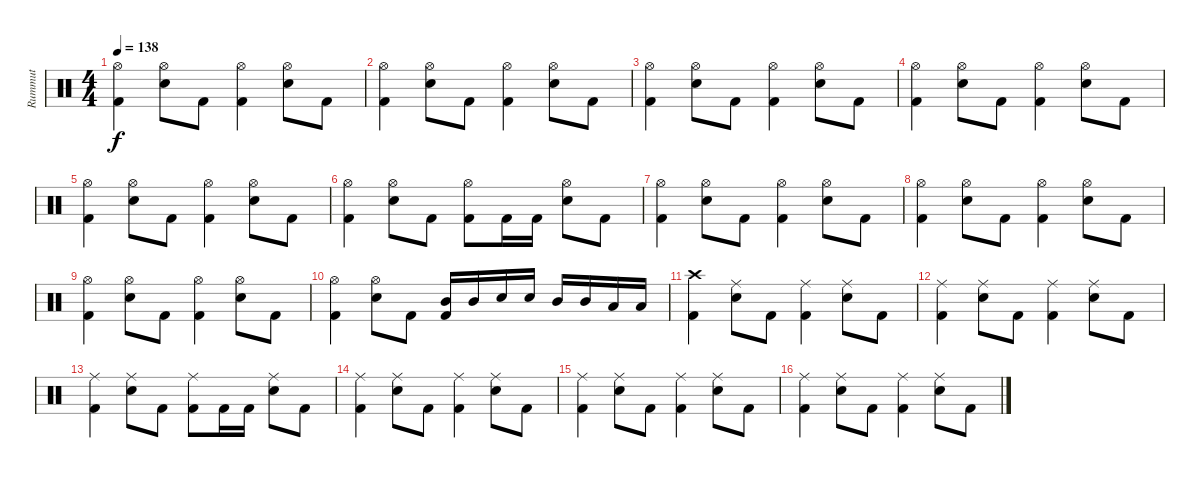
\track ("Rummut" "Rummut") {instrument percussion}
\staff {score}
\articulation defaults
\ts (4 4)
\tempo 138
\clef neutral
\ks c
("Hi-Hat (open)" "Kick (hit) 2").4{dy f} ("Hi-Hat (open)" "Snare (hit) 2").8 "Kick (hit) 2".8 ("Hi-Hat (open)" "Kick (hit) 2").4 ("Hi-Hat (open)" "Snare (hit) 2").8 "Kick (hit) 2".8 |
("Hi-Hat (open)" "Kick (hit) 2").4 ("Hi-Hat (open)" "Snare (hit) 2").8 "Kick (hit) 2".8 ("Hi-Hat (open)" "Kick (hit) 2").4 ("Hi-Hat (open)" "Snare (hit) 2").8 "Kick (hit) 2".8 |
("Hi-Hat (open)" "Kick (hit) 2").4 ("Hi-Hat (open)" "Snare (hit) 2").8 "Kick (hit) 2".8 ("Hi-Hat (open)" "Kick (hit) 2").4 ("Hi-Hat (open)" "Snare (hit) 2").8 "Kick (hit) 2".8 |
("Hi-Hat (open)" "Kick (hit) 2").4 ("Hi-Hat (open)" "Snare (hit) 2").8 "Kick (hit) 2".8 ("Hi-Hat (open)" "Kick (hit) 2").4 ("Hi-Hat (open)" "Snare (hit) 2").8 "Kick (hit) 2".8 |
("Hi-Hat (open)" "Kick (hit) 2").4 ("Hi-Hat (open)" "Snare (hit) 2").8 "Kick (hit) 2".8 ("Hi-Hat (open)" "Kick (hit) 2").4 ("Hi-Hat (open)" "Snare (hit) 2").8 "Kick (hit) 2".8 |
("Hi-Hat (open)" "Kick (hit) 2").4 ("Hi-Hat (open)" "Snare (hit) 2").8 "Kick (hit) 2".8 ("Hi-Hat (open)" "Kick (hit) 2").8 "Kick (hit) 2".16 "Kick (hit) 2".16 ("Hi-Hat (open)" "Snare (hit) 2").8 "Kick (hit) 2".8 |
("Hi-Hat (open)" "Kick (hit) 2").4 ("Hi-Hat (open)" "Snare (hit) 2").8 "Kick (hit) 2".8 ("Hi-Hat (open)" "Kick (hit) 2").4 ("Hi-Hat (open)" "Snare (hit) 2").8 "Kick (hit) 2".8 |
("Hi-Hat (open)" "Kick (hit) 2").4 ("Hi-Hat (open)" "Snare (hit) 2").8 "Kick (hit) 2".8 ("Hi-Hat (open)" "Kick (hit) 2").4 ("Hi-Hat (open)" "Snare (hit) 2").8 "Kick (hit) 2".8 |
("Hi-Hat (open)" "Kick (hit) 2").4 ("Hi-Hat (open)" "Snare (hit) 2").8 "Kick (hit) 2".8 ("Hi-Hat (open)" "Kick (hit) 2").4 ("Hi-Hat (open)" "Snare (hit) 2").8 "Kick (hit) 2".8 |
("Hi-Hat (open)" "Kick (hit) 2").4 ("Hi-Hat (open)" "Snare (hit) 2").8 "Kick (hit) 2".8 ("Mid Tom (hit)" "Kick (hit) 2").16 "Mid Tom (hit)".16 "Snare (hit) 2".16 "Snare (hit) 2".16 "Mid Tom (hit)".16 "Mid Tom (hit)".16 "Low Tom (hit)".16 "Low Tom (hit)".16 |
("Crash high (hit)" "Kick (hit) 2").4 ("Ride (middle)" "Snare (hit) 2").8 "Kick (hit) 2".8 ("Ride (middle)" "Kick (hit) 2").4 ("Ride (middle)" "Snare (hit) 2").8 "Kick (hit) 2".8 |
("Ride (middle)" "Kick (hit) 2").4 ("Ride (middle)" "Snare (hit) 2").8 "Kick (hit) 2".8 ("Ride (middle)" "Kick (hit) 2").4 ("Ride (middle)" "Snare (hit) 2").8 "Kick (hit) 2".8 |
("Ride (middle)" "Kick (hit) 2").4 ("Ride (middle)" "Snare (hit) 2").8 "Kick (hit) 2".8 ("Ride (middle)" "Kick (hit) 2").8 "Kick (hit) 2".16 "Kick (hit) 2".16 ("Ride (middle)" "Snare (hit) 2").8 "Kick (hit) 2".8 |
("Ride (middle)" "Kick (hit) 2").4 ("Ride (middle)" "Snare (hit) 2").8 "Kick (hit) 2".8 ("Ride (middle)" "Kick (hit) 2").4 ("Ride (middle)" "Snare (hit) 2").8 "Kick (hit) 2".8 |
("Ride (middle)" "Kick (hit) 2").4 ("Ride (middle)" "Snare (hit) 2").8 "Kick (hit) 2".8 ("Ride (middle)" "Kick (hit) 2").4 ("Ride (middle)" "Snare (hit) 2").8 "Kick (hit) 2".8 |
("Ride (middle)" "Kick (hit) 2").4 ("Ride (middle)" "Snare (hit) 2").8 "Kick (hit) 2".8 ("Ride (middle)" "Kick (hit) 2").4 ("Ride (middle)" "Snare (hit) 2").8 "Kick (hit) 2".8
